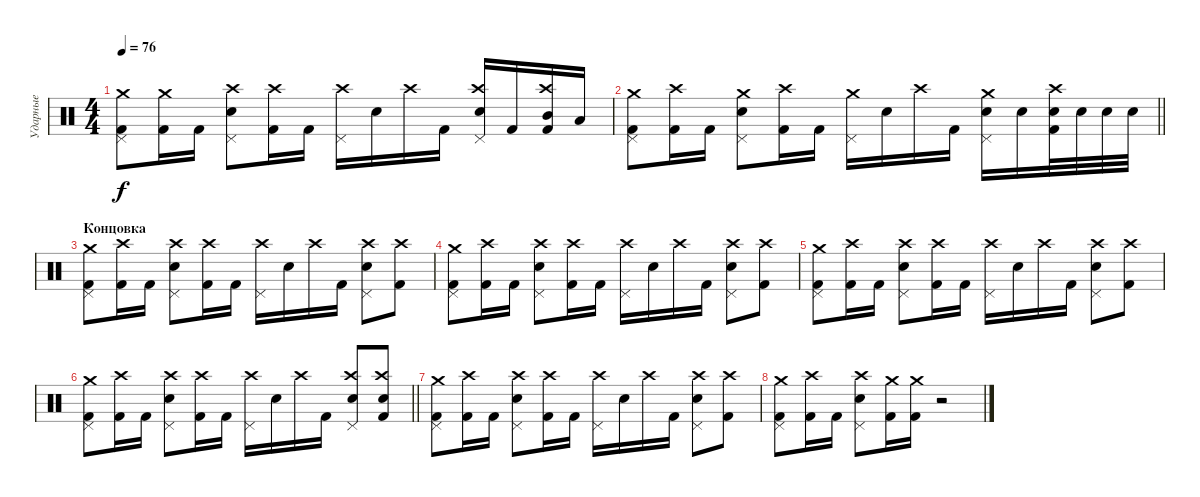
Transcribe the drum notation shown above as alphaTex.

\track ("Ударные" "Ударные") {instrument percussion}
\staff {score}
\articulation defaults
\ts (4 4)
\tempo 76
\clef neutral
\ks c
("Crash medium (hit)" "Pedal Hi-Hat (hit)" "Kick (hit) 2").8{dy f} ("Crash medium (hit)" "Kick (hit) 2").16 "Kick (hit) 2".16 ("Crash high (hit)" "Pedal Hi-Hat (hit)" "Snare (hit) 2").8 ("Crash high (hit)" "Kick (hit) 2").16 "Kick (hit) 2".16 ("Crash high (hit)" "Pedal Hi-Hat (hit)").16 "Snare (hit) 2".16 "Crash high (hit)".16 "Kick (hit) 2".16 ("Crash high (hit)" "Pedal Hi-Hat (hit)" "Snare (hit) 2").16 "Kick (hit) 2".16 ("Mid Tom (hit)" "Crash high (hit)" "Kick (hit) 2").16 "Low Tom (hit)".16 |
\barLineRight lightlight
("Crash medium (hit)" "Pedal Hi-Hat (hit)" "Kick (hit) 2").8 ("Crash high (hit)" "Kick (hit) 2").16 "Kick (hit) 2".16 ("Crash medium (hit)" "Pedal Hi-Hat (hit)" "Snare (hit) 2").8 ("Crash high (hit)" "Kick (hit) 2").16 "Kick (hit) 2".16 ("Crash medium (hit)" "Pedal Hi-Hat (hit)").16 "Snare (hit) 2".16 "Crash high (hit)".16 "Kick (hit) 2".16 ("Crash medium (hit)" "Pedal Hi-Hat (hit)" "Snare (hit) 2").16 "Snare (hit) 2".16 ("Crash high (hit)" "Snare (hit) 2" "Kick (hit) 2").32 "Snare (hit) 2".32 "Snare (hit) 2".32 "Snare (hit) 2".32 |
\section ("" "Концовка")
("Crash medium (hit)" "Pedal Hi-Hat (hit)" "Kick (hit) 2").8 ("Crash high (hit)" "Kick (hit) 2").16 "Kick (hit) 2".16 ("Crash high (hit)" "Pedal Hi-Hat (hit)" "Snare (hit) 2").8 ("Crash high (hit)" "Kick (hit) 2").16 "Kick (hit) 2".16 ("Crash high (hit)" "Pedal Hi-Hat (hit)").16 "Snare (hit) 2".16 "Crash high (hit)".16 "Kick (hit) 2".16 ("Crash high (hit)" "Pedal Hi-Hat (hit)" "Snare (hit) 2").8 ("Crash high (hit)" "Kick (hit) 2").8 |
("Crash medium (hit)" "Pedal Hi-Hat (hit)" "Kick (hit) 2").8 ("Crash high (hit)" "Kick (hit) 2").16 "Kick (hit) 2".16 ("Crash high (hit)" "Pedal Hi-Hat (hit)" "Snare (hit) 2").8 ("Crash high (hit)" "Kick (hit) 2").16 "Kick (hit) 2".16 ("Crash high (hit)" "Pedal Hi-Hat (hit)").16 "Snare (hit) 2".16 "Crash high (hit)".16 "Kick (hit) 2".16 ("Crash high (hit)" "Pedal Hi-Hat (hit)" "Snare (hit) 2").8 ("Crash high (hit)" "Kick (hit) 2").8 |
("Crash medium (hit)" "Pedal Hi-Hat (hit)" "Kick (hit) 2").8 ("Crash high (hit)" "Kick (hit) 2").16 "Kick (hit) 2".16 ("Crash high (hit)" "Pedal Hi-Hat (hit)" "Snare (hit) 2").8 ("Crash high (hit)" "Kick (hit) 2").16 "Kick (hit) 2".16 ("Crash high (hit)" "Pedal Hi-Hat (hit)").16 "Snare (hit) 2".16 "Crash high (hit)".16 "Kick (hit) 2".16 ("Crash high (hit)" "Pedal Hi-Hat (hit)" "Snare (hit) 2").8 ("Crash high (hit)" "Kick (hit) 2").8 |
\barLineRight lightlight
("Crash medium (hit)" "Pedal Hi-Hat (hit)" "Kick (hit) 2").8 ("Crash high (hit)" "Kick (hit) 2").16 "Kick (hit) 2".16 ("Crash high (hit)" "Pedal Hi-Hat (hit)" "Snare (hit) 2").8 ("Crash high (hit)" "Kick (hit) 2").16 "Kick (hit) 2".16 ("Crash high (hit)" "Pedal Hi-Hat (hit)").16 "Snare (hit) 2".16 "Crash high (hit)".16 "Kick (hit) 2".16 ("Crash high (hit)" "Pedal Hi-Hat (hit)" "Snare (hit) 2").8 ("Crash high (hit)" "Snare (hit) 2" "Kick (hit) 2").8 |
("Crash medium (hit)" "Pedal Hi-Hat (hit)" "Kick (hit) 2").8 ("Crash high (hit)" "Kick (hit) 2").16 "Kick (hit) 2".16 ("Crash high (hit)" "Pedal Hi-Hat (hit)" "Snare (hit) 2").8 ("Crash high (hit)" "Kick (hit) 2").16 "Kick (hit) 2".16 ("Crash high (hit)" "Pedal Hi-Hat (hit)").16 "Snare (hit) 2".16 "Crash high (hit)".16 "Kick (hit) 2".16 ("Crash high (hit)" "Pedal Hi-Hat (hit)" "Snare (hit) 2").8 ("Crash high (hit)" "Kick (hit) 2").8 |
("Crash medium (hit)" "Pedal Hi-Hat (hit)" "Kick (hit) 2").8 ("Crash high (hit)" "Kick (hit) 2").16 "Kick (hit) 2".16 ("Crash high (hit)" "Pedal Hi-Hat (hit)" "Snare (hit) 2").8 ("Crash medium (hit)" "Kick (hit) 2").16 ("Crash medium (hit)" "Kick (hit) 2").16 r.2
